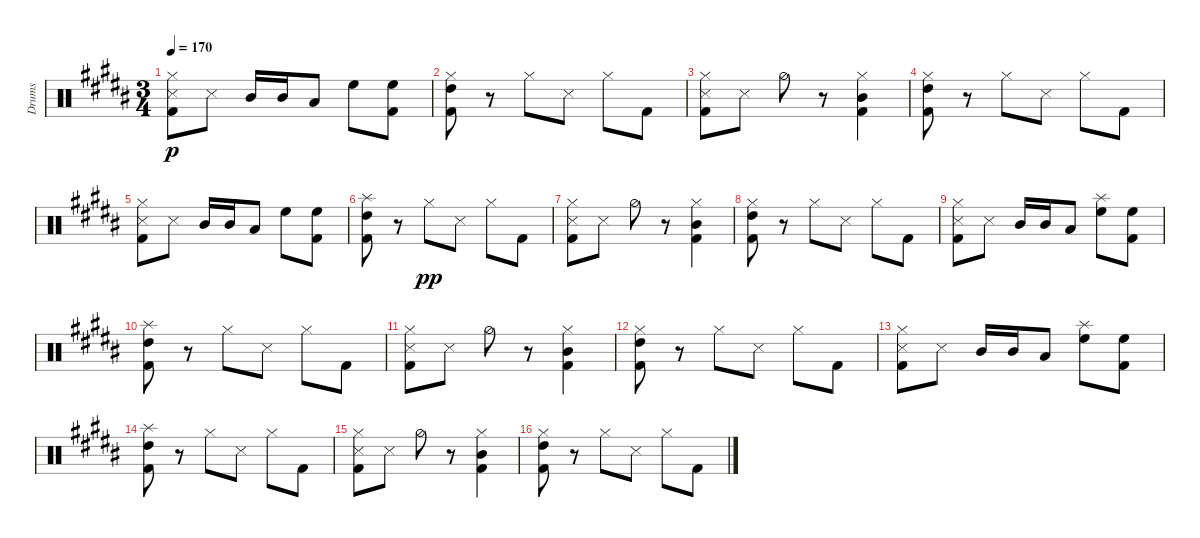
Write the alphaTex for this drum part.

\defaultSystemsLayout 4
\bracketExtendMode groupsimilarinstruments
\otherSystemsTrackNameOrientation horizontal
\track ("Drumkit" "Drums") {instrument percussion}
\staff {score}
\articulation defaults
\ts (3 4)
\tempo 170
\clef neutral
\ks b
("Hi-Hat (closed)"{acc bb} "Snare (side stick) 3"{acc bb} "Kick (hit) 2"{acc bb}).8{dy p beam Down} "Snare (side stick) 3"{acc bb}.8{beam Down} "Mid Tom (hit)"{acc bb}.16{beam Up} "Mid Tom (hit)"{acc bb}.16{beam Up} "Low Tom (hit)"{acc bb}.8{beam Up} "High Floor Tom (hit)"{acc bb}.8{beam Down} ("High Floor Tom (hit)"{acc bb} "Kick (hit) 2"{acc bb}).8{beam Down} |
("High Tom (hit)"{acc bb} "Kick (hit) 2"{acc bb} "Hi-Hat (closed)"{acc bb}).8{beam Down} r.8{beam Down} "Hi-Hat (closed)"{acc bb}.8{beam Down} "Snare (side stick) 3"{acc bb}.8{beam Down} "Hi-Hat (closed)"{acc bb}.8{beam Down} "Kick (hit) 2"{acc bb}.8{beam Down} |
("Hi-Hat (closed)"{acc bb} "Snare (side stick) 3"{acc bb} "Kick (hit) 2"{acc bb}).8{beam Down} "Snare (side stick) 3"{acc bb}.8{beam Down} "Hi-Hat (half)"{acc bb}.8{beam Down} r.8{beam Down} ("Hi-Hat (closed)"{acc bb} "Kick (hit) 2"{acc bb} "Mid Tom (hit)"{acc bb}).4{beam Down} |
("High Tom (hit)"{acc bb} "Kick (hit) 2"{acc bb} "Hi-Hat (closed)"{acc bb}).8{beam Down} r.8{beam Down} "Hi-Hat (closed)"{acc bb}.8{beam Down} "Snare (side stick) 3"{acc bb}.8{beam Down} "Hi-Hat (closed)"{acc bb}.8{beam Down} "Kick (hit) 2"{acc bb}.8{beam Down} |
("Hi-Hat (closed)"{acc bb} "Snare (side stick) 3"{acc bb} "Kick (hit) 2"{acc bb}).8{beam Down} "Snare (side stick) 3"{acc bb}.8{beam Down} "Mid Tom (hit)"{acc bb}.16{beam Up} "Mid Tom (hit)"{acc bb}.16{beam Up} "Low Tom (hit)"{acc bb}.8{beam Up} "High Floor Tom (hit)"{acc bb}.8{beam Down} ("High Floor Tom (hit)"{acc bb} "Kick (hit) 2"{acc bb}).8{beam Down} |
("High Tom (hit)"{acc bb} "Kick (hit) 2"{acc bb} "Splash (hit)"{acc bb}).8{beam Down} r.8{beam Down} "Hi-Hat (closed)"{acc bb}.8{dy pp beam Down} "Snare (side stick) 3"{acc bb}.8{beam Down} "Hi-Hat (closed)"{acc bb}.8{beam Down} "Kick (hit) 2"{acc bb}.8{beam Down} |
("Hi-Hat (closed)"{acc bb} "Snare (side stick) 3"{acc bb} "Kick (hit) 2"{acc bb}).8{beam Down} "Snare (side stick) 3"{acc bb}.8{beam Down} "Hi-Hat (half)"{acc bb}.8{beam Down} r.8{beam Down} ("Hi-Hat (closed)"{acc bb} "Kick (hit) 2"{acc bb} "Mid Tom (hit)"{acc bb}).4{beam Down} |
("High Tom (hit)"{acc bb} "Kick (hit) 2"{acc bb} "Hi-Hat (closed)"{acc bb}).8{beam Down} r.8{beam Down} "Hi-Hat (closed)"{acc bb}.8{beam Down} "Snare (side stick) 3"{acc bb}.8{beam Down} "Hi-Hat (closed)"{acc bb}.8{beam Down} "Kick (hit) 2"{acc bb}.8{beam Down} |
("Hi-Hat (closed)"{acc bb} "Snare (side stick) 3"{acc bb} "Kick (hit) 2"{acc bb}).8{beam Down} "Snare (side stick) 3"{acc bb}.8{beam Down} "Mid Tom (hit)"{acc bb}.16{beam Up} "Mid Tom (hit)"{acc bb}.16{beam Up} "Low Tom (hit)"{acc bb}.8{beam Up} ("High Floor Tom (hit)"{acc bb} "Splash (hit)"{acc bb}).8{beam Down} ("High Floor Tom (hit)"{acc bb} "Kick (hit) 2"{acc bb}).8{beam Down} |
("High Tom (hit)"{acc bb} "Kick (hit) 2"{acc bb} "Splash (hit)"{acc bb}).8{beam Down} r.8{beam Down} "Hi-Hat (closed)"{acc bb}.8{beam Down} "Snare (side stick) 3"{acc bb}.8{beam Down} "Hi-Hat (closed)"{acc bb}.8{beam Down} "Kick (hit) 2"{acc bb}.8{beam Down} |
("Hi-Hat (closed)"{acc bb} "Snare (side stick) 3"{acc bb} "Kick (hit) 2"{acc bb}).8{beam Down} "Snare (side stick) 3"{acc bb}.8{beam Down} "Hi-Hat (half)"{acc bb}.8{beam Down} r.8{beam Down} ("Hi-Hat (closed)"{acc bb} "Kick (hit) 2"{acc bb} "Mid Tom (hit)"{acc bb}).4{beam Down} |
("High Tom (hit)"{acc bb} "Kick (hit) 2"{acc bb} "Hi-Hat (closed)"{acc bb}).8{beam Down} r.8{beam Down} "Hi-Hat (closed)"{acc bb}.8{beam Down} "Snare (side stick) 3"{acc bb}.8{beam Down} "Hi-Hat (closed)"{acc bb}.8{beam Down} "Kick (hit) 2"{acc bb}.8{beam Down} |
("Hi-Hat (closed)"{acc bb} "Snare (side stick) 3"{acc bb} "Kick (hit) 2"{acc bb}).8{beam Down} "Snare (side stick) 3"{acc bb}.8{beam Down} "Mid Tom (hit)"{acc bb}.16{beam Up} "Mid Tom (hit)"{acc bb}.16{beam Up} "Low Tom (hit)"{acc bb}.8{beam Up} ("High Floor Tom (hit)"{acc bb} "Splash (hit)"{acc bb}).8{beam Down} ("High Floor Tom (hit)"{acc bb} "Kick (hit) 2"{acc bb}).8{beam Down} |
("High Tom (hit)"{acc bb} "Kick (hit) 2"{acc bb} "Splash (hit)"{acc bb}).8{beam Down} r.8{beam Down} "Hi-Hat (closed)"{acc bb}.8{beam Down} "Snare (side stick) 3"{acc bb}.8{beam Down} "Hi-Hat (closed)"{acc bb}.8{beam Down} "Kick (hit) 2"{acc bb}.8{beam Down} |
("Hi-Hat (closed)"{acc bb} "Snare (side stick) 3"{acc bb} "Kick (hit) 2"{acc bb}).8{beam Down} "Snare (side stick) 3"{acc bb}.8{beam Down} "Hi-Hat (half)"{acc bb}.8{beam Down} r.8{beam Down} ("Hi-Hat (closed)"{acc bb} "Kick (hit) 2"{acc bb} "Mid Tom (hit)"{acc bb}).4{beam Down} |
("High Tom (hit)"{acc bb} "Kick (hit) 2"{acc bb} "Hi-Hat (closed)"{acc bb}).8{beam Down} r.8{beam Down} "Hi-Hat (closed)"{acc bb}.8{beam Down} "Snare (side stick) 3"{acc bb}.8{beam Down} "Hi-Hat (closed)"{acc bb}.8{beam Down} "Kick (hit) 2"{acc bb}.8{beam Down}
